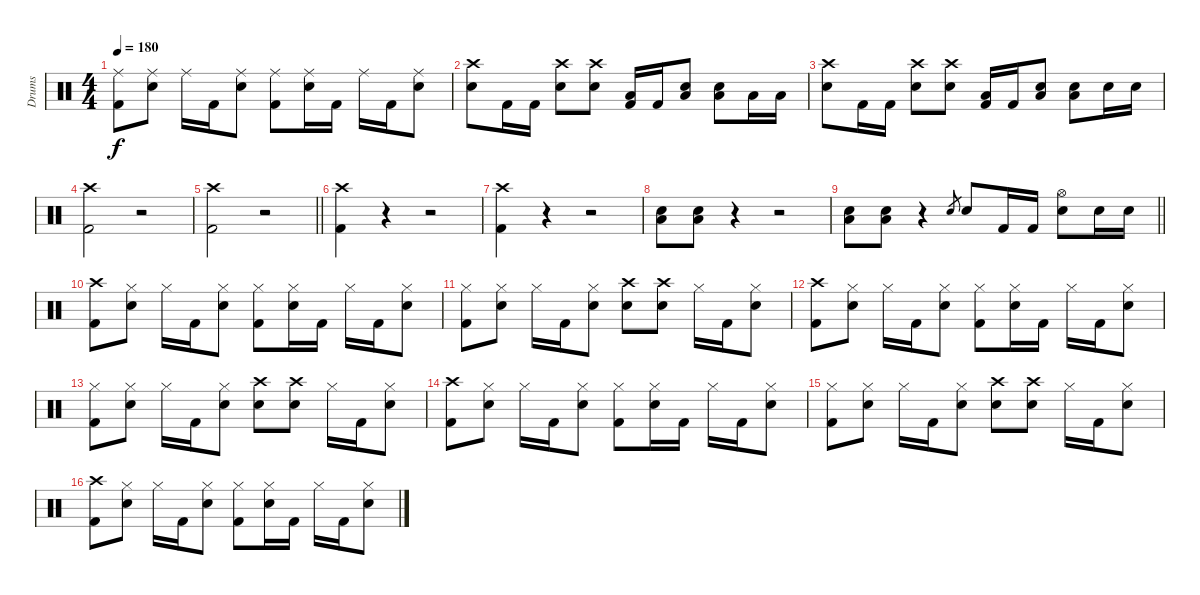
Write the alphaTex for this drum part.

\track ("Drums" "Drums") {instrument percussion}
\staff {score}
\articulation defaults
\ts (4 4)
\tempo 180
\clef neutral
\ks c
("Ride (middle)" "Kick (hit) 2").8{dy f} ("Ride (middle)" "Snare (hit) 2").8 "Ride (middle)".16 "Kick (hit) 2".16 ("Ride (middle)" "Snare (hit) 2").8 ("Ride (middle)" "Kick (hit) 2").8 ("Ride (middle)" "Snare (hit) 2").16 "Kick (hit) 2".16 "Ride (middle)".16 "Kick (hit) 2".16 ("Ride (middle)" "Snare (hit) 2").8 |
("Crash high (hit)" "Snare (hit) 2").8 "Kick (hit) 2".16 "Kick (hit) 2".16 ("Crash high (hit)" "Snare (hit) 2").8 ("Crash high (hit)" "Snare (hit) 2").8 ("Low Tom (hit)" "Kick (hit) 2").16 "Kick (hit) 2".16 ("Snare (hit) 2" "Low Floor Tom (hit)").8 ("Snare (hit) 2" "Low Floor Tom (hit)").8 "Low Floor Tom (hit)".16 "Low Floor Tom (hit)".16 |
("Crash high (hit)" "Snare (hit) 2").8 "Kick (hit) 2".16 "Kick (hit) 2".16 ("Crash high (hit)" "Snare (hit) 2").8 ("Crash high (hit)" "Snare (hit) 2").8 ("Low Tom (hit)" "Kick (hit) 2").16 "Kick (hit) 2".16 ("Snare (hit) 2" "Low Floor Tom (hit)").8 ("Snare (hit) 2" "Low Floor Tom (hit)").8 "Snare (hit) 2".16 "Snare (hit) 2".16 |
("Crash high (hit)" "Kick (hit) 2").2 r.2 |
\barLineRight lightlight
("Crash high (hit)" "Kick (hit) 2").2 r.2 |
("Crash high (hit)" "Kick (hit) 2").4 r.4 r.2 |
("Crash high (hit)" "Kick (hit) 2").4 r.4 r.2 |
("Snare (hit) 2" "Low Floor Tom (hit)").8 ("Snare (hit) 2" "Low Floor Tom (hit)").8 r.4 r.2 |
\barLineRight lightlight
("Snare (hit) 2" "Low Floor Tom (hit)").8 ("Snare (hit) 2" "Low Floor Tom (hit)").8 r.4 "Snare (hit) 2".8{gr} "Snare (hit) 2".8 "Kick (hit) 2".16 "Kick (hit) 2".16 ("Hi-Hat (open)" "Snare (hit) 2").8 "Snare (hit) 2".16 "Snare (hit) 2".16 |
("Crash high (hit)" "Kick (hit) 2").8 ("Hi-Hat (closed)" "Snare (hit) 2").8 "Hi-Hat (closed)".16 "Kick (hit) 2".16 ("Hi-Hat (closed)" "Snare (hit) 2").8 ("Hi-Hat (closed)" "Kick (hit) 2").8 ("Hi-Hat (closed)" "Snare (hit) 2").16 "Kick (hit) 2".16 "Hi-Hat (closed)".16 "Kick (hit) 2".16 ("Hi-Hat (closed)" "Snare (hit) 2").8 |
("Hi-Hat (closed)" "Kick (hit) 2").8 ("Hi-Hat (closed)" "Snare (hit) 2").8 "Hi-Hat (closed)".16 "Kick (hit) 2".16 ("Hi-Hat (closed)" "Snare (hit) 2").8 ("Crash high (hit)" "Snare (hit) 2").8 ("Crash high (hit)" "Snare (hit) 2").8 "Hi-Hat (closed)".16 "Kick (hit) 2".16 ("Hi-Hat (closed)" "Snare (hit) 2").8 |
("Crash high (hit)" "Kick (hit) 2").8 ("Hi-Hat (closed)" "Snare (hit) 2").8 "Hi-Hat (closed)".16 "Kick (hit) 2".16 ("Hi-Hat (closed)" "Snare (hit) 2").8 ("Hi-Hat (closed)" "Kick (hit) 2").8 ("Hi-Hat (closed)" "Snare (hit) 2").16 "Kick (hit) 2".16 "Hi-Hat (closed)".16 "Kick (hit) 2".16 ("Hi-Hat (closed)" "Snare (hit) 2").8 |
("Hi-Hat (closed)" "Kick (hit) 2").8 ("Hi-Hat (closed)" "Snare (hit) 2").8 "Hi-Hat (closed)".16 "Kick (hit) 2".16 ("Hi-Hat (closed)" "Snare (hit) 2").8 ("Crash high (hit)" "Snare (hit) 2").8 ("Crash high (hit)" "Snare (hit) 2").8 "Hi-Hat (closed)".16 "Kick (hit) 2".16 ("Hi-Hat (closed)" "Snare (hit) 2").8 |
("Crash high (hit)" "Kick (hit) 2").8 ("Hi-Hat (closed)" "Snare (hit) 2").8 "Hi-Hat (closed)".16 "Kick (hit) 2".16 ("Hi-Hat (closed)" "Snare (hit) 2").8 ("Hi-Hat (closed)" "Kick (hit) 2").8 ("Hi-Hat (closed)" "Snare (hit) 2").16 "Kick (hit) 2".16 "Hi-Hat (closed)".16 "Kick (hit) 2".16 ("Hi-Hat (closed)" "Snare (hit) 2").8 |
("Hi-Hat (closed)" "Kick (hit) 2").8 ("Hi-Hat (closed)" "Snare (hit) 2").8 "Hi-Hat (closed)".16 "Kick (hit) 2".16 ("Hi-Hat (closed)" "Snare (hit) 2").8 ("Crash high (hit)" "Snare (hit) 2").8 ("Crash high (hit)" "Snare (hit) 2").8 "Hi-Hat (closed)".16 "Kick (hit) 2".16 ("Hi-Hat (closed)" "Snare (hit) 2").8 |
("Crash high (hit)" "Kick (hit) 2").8 ("Hi-Hat (closed)" "Snare (hit) 2").8 "Hi-Hat (closed)".16 "Kick (hit) 2".16 ("Hi-Hat (closed)" "Snare (hit) 2").8 ("Hi-Hat (closed)" "Kick (hit) 2").8 ("Hi-Hat (closed)" "Snare (hit) 2").16 "Kick (hit) 2".16 "Hi-Hat (closed)".16 "Kick (hit) 2".16 ("Hi-Hat (closed)" "Snare (hit) 2").8
